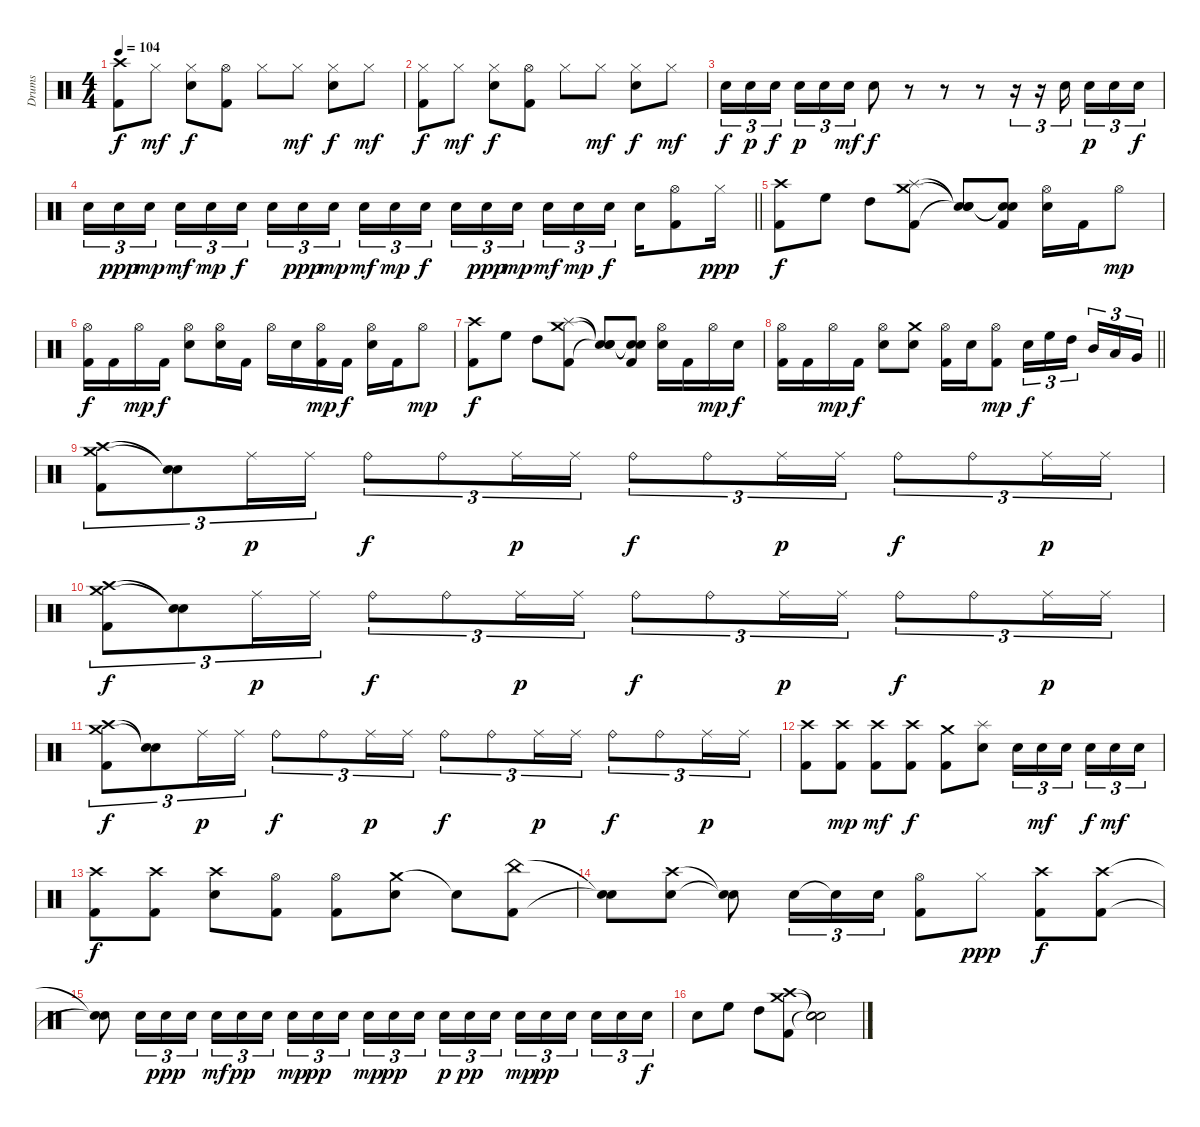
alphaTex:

\track ("Drums" "Drums") {instrument percussion}
\staff {score}
\articulation defaults
\ts (4 4)
\tempo 104
\clef neutral
\ks c
("Crash high (hit)" "Kick (hit) 2").8{dy f} "Hi-Hat (closed)".8{dy mf} ("Hi-Hat (closed)" "Electric Snare (hit)").8{dy f} ("Hi-Hat (open)" "Kick (hit) 2").8 "Hi-Hat (closed)".8 "Hi-Hat (closed)".8{dy mf} ("Hi-Hat (closed)" "Electric Snare (hit)").8{dy f} "Hi-Hat (closed)".8{dy mf} |
("Hi-Hat (closed)" "Kick (hit) 2").8{dy f} "Hi-Hat (closed)".8{dy mf} ("Hi-Hat (closed)" "Electric Snare (hit)").8{dy f} ("Hi-Hat (open)" "Kick (hit) 2").8 "Hi-Hat (closed)".8 "Hi-Hat (closed)".8{dy mf} ("Hi-Hat (closed)" "Electric Snare (hit)").8{dy f} "Hi-Hat (closed)".8{dy mf} |
"Electric Snare (hit)".16{tu (3 2) dy f} "Electric Snare (hit)".16{tu (3 2) dy p} "Electric Snare (hit)".16{tu (3 2) dy f} "Electric Snare (hit)".16{tu (3 2) dy p} "Electric Snare (hit)".16{tu (3 2)} "Electric Snare (hit)".16{tu (3 2) dy mf} "Electric Snare (hit)".8{dy f} r.8 r.8 r.8 r.16{tu (3 2)} r.16{tu (3 2)} "Electric Snare (hit)".16{tu (3 2)} "Electric Snare (hit)".16{tu (3 2) dy p} "Electric Snare (hit)".16{tu (3 2)} "Electric Snare (hit)".16{tu (3 2) dy f} |
\barLineRight lightlight "Electric Snare (hit)".16{tu (3 2)} "Electric Snare (hit)".16{tu (3 2) dy ppp} "Electric Snare (hit)".16{tu (3 2) dy mp} "Electric Snare (hit)".16{tu (3 2) dy mf} "Electric Snare (hit)".16{tu (3 2) dy mp} "Electric Snare (hit)".16{tu (3 2) dy f} "Electric Snare (hit)".16{tu (3 2)} "Electric Snare (hit)".16{tu (3 2) dy ppp} "Electric Snare (hit)".16{tu (3 2) dy mp} "Electric Snare (hit)".16{tu (3 2) dy mf} "Electric Snare (hit)".16{tu (3 2) dy mp} "Electric Snare (hit)".16{tu (3 2) dy f} "Electric Snare (hit)".16{tu (3 2)} "Electric Snare (hit)".16{tu (3 2) dy ppp} "Electric Snare (hit)".16{tu (3 2) dy mp} "Electric Snare (hit)".16{tu (3 2) dy mf} "Electric Snare (hit)".16{tu (3 2) dy mp} "Electric Snare (hit)".16{tu (3 2) dy f} "Electric Snare (hit)".16
("Hi-Hat (open)" "Kick (hit) 2").8 "Hi-Hat (closed)".16{dy ppp} |
("Crash high (hit)" "Kick (hit) 2").8{dy f} "High Floor Tom (hit)".8 "High Tom (hit)".8 ("Crash medium (hit)" "Splash (hit)" "Kick (hit) 2").8 ("Snare (hit)"{t} "Snare (hit)"{t} "Snare (hit)"{t}).8 ("Snare (hit)"{t} "Snare (hit)"{t} "Kick (hit) 2").8 ("Hi-Hat (open)" "Electric Snare (hit)").16 "Kick (hit) 2".16 "Hi-Hat (open)".8{dy mp} |
("Hi-Hat (open)" "Kick (hit) 2").16{dy f} "Kick (hit) 2".16 "Hi-Hat (open)".16{dy mp} "Kick (hit) 2".16{dy f} ("Hi-Hat (open)" "Electric Snare (hit)").8 ("Hi-Hat (open)" "Electric Snare (hit)").16 "Kick (hit) 2".16 "Hi-Hat (open)".16 "Electric Snare (hit)".16 ("Hi-Hat (open)" "Kick (hit) 2").16{dy mp} "Kick (hit) 2".16{dy f} ("Hi-Hat (open)" "Electric Snare (hit)").16 "Kick (hit) 2".16 "Hi-Hat (open)".8{dy mp} |
("Crash high (hit)" "Kick (hit) 2").8{dy f} "High Floor Tom (hit)".8 "High Tom (hit)".8 ("Crash medium (hit)" "Splash (hit)" "Kick (hit) 2").8 ("Snare (hit)"{t} "Snare (hit)"{t} "Snare (hit)"{t}).8 ("Snare (hit)"{t} "Snare (hit)"{t} "Kick (hit) 2").8 ("Hi-Hat (open)" "Electric Snare (hit)").16 "Kick (hit) 2".16 "Hi-Hat (open)".16{dy mp} "Electric Snare (hit)".16{dy f} |
\barLineRight lightlight
("Hi-Hat (open)" "Kick (hit) 2").16 "Kick (hit) 2".16 "Hi-Hat (open)".16{dy mp} "Kick (hit) 2".16{dy f} ("Hi-Hat (open)" "Electric Snare (hit)").8 ("Crash medium (hit)" "Electric Snare (hit)").8 ("Hi-Hat (open)" "Kick (hit) 2").16 "Electric Snare (hit)".16 ("Hi-Hat (open)" "Kick (hit) 2").8{dy mp} "Electric Snare (hit)".16{tu (3 2) dy f} "High Floor Tom (hit)".16{tu (3 2)} "High Tom (hit)".16{tu (3 2)} "Mid Tom (hit)".16{tu (3 2)} "Low Tom (hit)".16{tu (3 2)} "Very Low Tom (hit)".16{tu (3 2)} |
("Crash high (hit)" "Crash medium (hit)" "Kick (hit) 2").8{tu (3 2)} ("Snare (hit)"{t} "Snare (hit)"{t}).8{tu (3 2)} "Ride (middle)".16{tu (3 2) dy p} "Ride (middle)".16{tu (3 2)} "Ride (bell)".8{tu (3 2) dy f} "Ride (bell)".8{tu (3 2)} "Ride (middle)".16{tu (3 2) dy p} "Ride (middle)".16{tu (3 2)} "Ride (bell)".8{tu (3 2) dy f} "Ride (bell)".8{tu (3 2)} "Ride (middle)".16{tu (3 2) dy p} "Ride (middle)".16{tu (3 2)} "Ride (bell)".8{tu (3 2) dy f} "Ride (bell)".8{tu (3 2)} "Ride (middle)".16{tu (3 2) dy p} "Ride (middle)".16{tu (3 2)} |
("Crash high (hit)" "Crash medium (hit)" "Kick (hit) 2").8{tu (3 2) dy f} ("Snare (hit)"{t} "Snare (hit)"{t}).8{tu (3 2)} "Ride (middle)".16{tu (3 2) dy p} "Ride (middle)".16{tu (3 2)} "Ride (bell)".8{tu (3 2) dy f} "Ride (bell)".8{tu (3 2)} "Ride (middle)".16{tu (3 2) dy p} "Ride (middle)".16{tu (3 2)} "Ride (bell)".8{tu (3 2) dy f} "Ride (bell)".8{tu (3 2)} "Ride (middle)".16{tu (3 2) dy p} "Ride (middle)".16{tu (3 2)} "Ride (bell)".8{tu (3 2) dy f} "Ride (bell)".8{tu (3 2)} "Ride (middle)".16{tu (3 2) dy p} "Ride (middle)".16{tu (3 2)} |
("Crash high (hit)" "Crash medium (hit)" "Kick (hit) 2").8{tu (3 2) dy f} ("Snare (hit)"{t} "Snare (hit)"{t}).8{tu (3 2)} "Ride (middle)".16{tu (3 2) dy p} "Ride (middle)".16{tu (3 2)} "Ride (bell)".8{tu (3 2) dy f} "Ride (bell)".8{tu (3 2)} "Ride (middle)".16{tu (3 2) dy p} "Ride (middle)".16{tu (3 2)} "Ride (bell)".8{tu (3 2) dy f} "Ride (bell)".8{tu (3 2)} "Ride (middle)".16{tu (3 2) dy p} "Ride (middle)".16{tu (3 2)} "Ride (bell)".8{tu (3 2) dy f} "Ride (bell)".8{tu (3 2)} "Ride (middle)".16{tu (3 2) dy p} "Ride (middle)".16{tu (3 2)} |
("Crash high (hit)" "Kick (hit) 2").8 ("Crash high (hit)" "Kick (hit) 2").8{dy mp} ("Crash high (hit)" "Kick (hit) 2").8{dy mf} ("Crash high (hit)" "Kick (hit) 2").8{dy f} ("Crash medium (hit)" "Kick (hit) 2").8 ("Splash (hit)" "Electric Snare (hit)").8 "Electric Snare (hit)".16{tu (3 2)} "Electric Snare (hit)".16{tu (3 2) dy mf} "Electric Snare (hit)".16{tu (3 2)} "Electric Snare (hit)".16{tu (3 2) dy f} "Electric Snare (hit)".16{tu (3 2) dy mf} "Electric Snare (hit)".16{tu (3 2)} |
("Crash high (hit)" "Kick (hit) 2").8{dy f} ("Crash high (hit)" "Kick (hit) 2").8 ("Crash high (hit)" "Electric Snare (hit)").8 ("Hi-Hat (open)" "Kick (hit) 2").8 ("Hi-Hat (open)" "Kick (hit) 2").8 ("Crash medium (hit)" "Electric Snare (hit)").8 "Snare (hit)"{t}.8 ("China (hit)" "Kick (hit) 2").8 |
("Snare (hit)"{t} "Snare (hit)"{t}).8 ("Crash high (hit)" "Electric Snare (hit)").8 ("Snare (hit)"{t} "Snare (hit)"{t}).8 "Electric Snare (hit)".16{tu (3 2)} "Snare (hit)"{t}.16{tu (3 2)} "Electric Snare (hit)".16{tu (3 2)} ("Hi-Hat (open)" "Kick (hit) 2").8 "Hi-Hat (closed)".8{dy ppp} ("Crash high (hit)" "Kick (hit) 2").8{dy f} ("Crash high (hit)" "Kick (hit) 2").8 |
("Snare (hit)"{t} "Snare (hit)"{t}).8 "Electric Snare (hit)".16{tu (3 2)} "Electric Snare (hit)".16{tu (3 2) dy ppp} "Electric Snare (hit)".16{tu (3 2)} "Electric Snare (hit)".16{tu (3 2) dy mf} "Electric Snare (hit)".16{tu (3 2) dy pp} "Electric Snare (hit)".16{tu (3 2)} "Electric Snare (hit)".16{tu (3 2) dy mp} "Electric Snare (hit)".16{tu (3 2) dy pp} "Electric Snare (hit)".16{tu (3 2)} "Electric Snare (hit)".16{tu (3 2) dy mp} "Electric Snare (hit)".16{tu (3 2) dy pp} "Electric Snare (hit)".16{tu (3 2)} "Electric Snare (hit)".16{tu (3 2) dy p} "Electric Snare (hit)".16{tu (3 2) dy pp} "Electric Snare (hit)".16{tu (3 2)} "Electric Snare (hit)".16{tu (3 2) dy mp} "Electric Snare (hit)".16{tu (3 2) dy pp} "Electric Snare (hit)".16{tu (3 2)} "Electric Snare (hit)".16{tu (3 2)} "Electric Snare (hit)".16{tu (3 2)} "Electric Snare (hit)".16{tu (3 2) dy f} |
"Electric Snare (hit)".8 "High Floor Tom (hit)".8 "High Tom (hit)".8 ("Crash high (hit)" "Crash medium (hit)" "Kick (hit) 2").8 ("Snare (hit)"{t} "Snare (hit)"{t} "Snare (hit)"{t}).2
